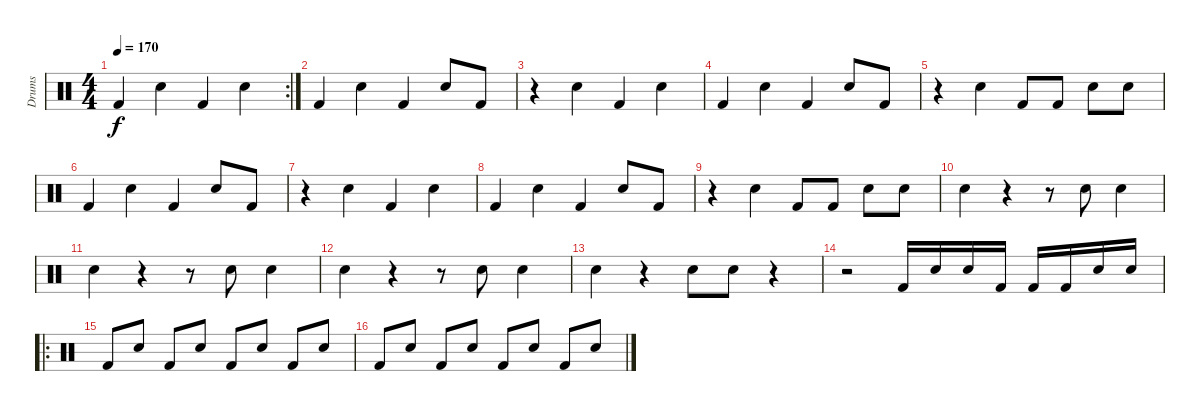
\track ("Drums" "Drums") {instrument percussion}
\staff {score}
\articulation defaults
\rc 2
\ts (4 4)
\tempo 170
\clef neutral
\ks c "Kick (hit) 2".4{dy f} "Snare (hit) 2".4 "Kick (hit) 2".4 "Snare (hit) 2".4
|
"Kick (hit) 2".4 "Snare (hit) 2".4 "Kick (hit) 2".4 "Snare (hit) 2".8 "Kick (hit) 2".8 |
r.4 "Snare (hit) 2".4 "Kick (hit) 2".4 "Snare (hit) 2".4 |
"Kick (hit) 2".4 "Snare (hit) 2".4 "Kick (hit) 2".4 "Snare (hit) 2".8 "Kick (hit) 2".8 |
r.4 "Snare (hit) 2".4 "Kick (hit) 2".8 "Kick (hit) 2".8 "Snare (hit) 2".8 "Snare (hit) 2".8 |
"Kick (hit) 2".4 "Snare (hit) 2".4 "Kick (hit) 2".4 "Snare (hit) 2".8 "Kick (hit) 2".8 |
r.4 "Snare (hit) 2".4 "Kick (hit) 2".4 "Snare (hit) 2".4 |
"Kick (hit) 2".4 "Snare (hit) 2".4 "Kick (hit) 2".4 "Snare (hit) 2".8 "Kick (hit) 2".8 |
r.4 "Snare (hit) 2".4 "Kick (hit) 2".8 "Kick (hit) 2".8 "Snare (hit) 2".8 "Snare (hit) 2".8 |
"Snare (hit) 2".4 r.4 r.8 "Snare (hit) 2".8 "Snare (hit) 2".4 |
"Snare (hit) 2".4 r.4 r.8 "Snare (hit) 2".8 "Snare (hit) 2".4 |
"Snare (hit) 2".4 r.4 r.8 "Snare (hit) 2".8 "Snare (hit) 2".4 |
"Snare (hit) 2".4 r.4 "Snare (hit) 2".8 "Snare (hit) 2".8 r.4 |
r.2 "Kick (hit) 2".16 "Snare (hit) 2".16 "Snare (hit) 2".16 "Kick (hit) 2".16 "Kick (hit) 2".16 "Kick (hit) 2".16 "Snare (hit) 2".16 "Snare (hit) 2".16 |
\ro "Kick (hit) 2".8 "Snare (hit) 2".8 "Kick (hit) 2".8 "Snare (hit) 2".8 "Kick (hit) 2".8 "Snare (hit) 2".8 "Kick (hit) 2".8 "Snare (hit) 2".8
|
"Kick (hit) 2".8 "Snare (hit) 2".8 "Kick (hit) 2".8 "Snare (hit) 2".8 "Kick (hit) 2".8 "Snare (hit) 2".8 "Kick (hit) 2".8 "Snare (hit) 2".8
